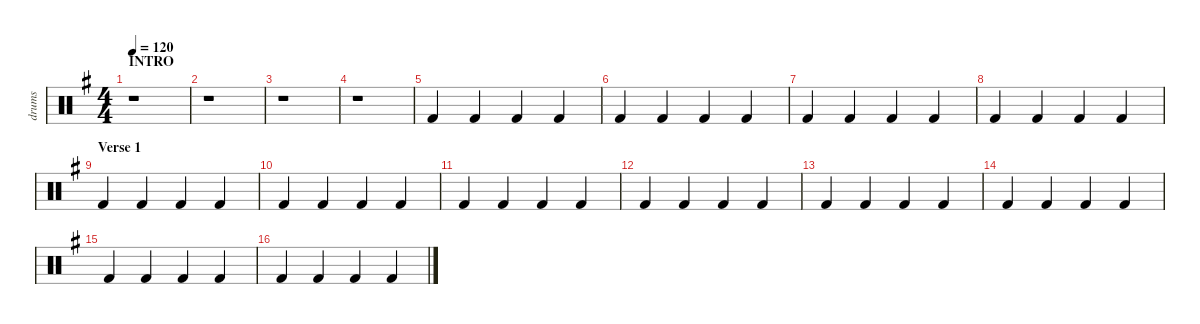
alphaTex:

\defaultSystemsLayout 4
\hideDynamics
\bracketExtendMode nobrackets
\otherSystemsTrackNameOrientation horizontal
\track ("drums" "drums") {instrument percussion}
\staff {score}
\articulation defaults
\ts (4 4)
\section ("" "INTRO")
\tempo 120
\clef neutral
\scale
1.17024
\ks eminor
r.1{dy mf beam Down} |
\scale
0.943253 r.1{beam Down} |
\scale
0.943253 r.1{beam Down} |
\scale
0.943253 r.1{beam Down} |
\scale
1.07945 "Kick (hit) 2"{acc forcenatural}.4{beam Up} "Kick (hit) 2"{acc forcenatural}.4{beam Up} "Kick (hit) 2"{acc forcenatural}.4{beam Up} "Kick (hit) 2"{acc forcenatural}.4{beam Up} |
\scale
0.973518 "Kick (hit) 2"{acc forcenatural}.4{beam Up} "Kick (hit) 2"{acc forcenatural}.4{beam Up} "Kick (hit) 2"{acc forcenatural}.4{beam Up} "Kick (hit) 2"{acc forcenatural}.4{beam Up} |
\scale
0.973518 "Kick (hit) 2"{acc forcenatural}.4{beam Up} "Kick (hit) 2"{acc forcenatural}.4{beam Up} "Kick (hit) 2"{acc forcenatural}.4{beam Up} "Kick (hit) 2"{acc forcenatural}.4{beam Up} |
\scale
0.973518 "Kick (hit) 2"{acc forcenatural}.4{beam Up} "Kick (hit) 2"{acc forcenatural}.4{beam Up} "Kick (hit) 2"{acc forcenatural}.4{beam Up} "Kick (hit) 2"{acc forcenatural}.4{beam Up} |
\section ("" "Verse 1")
\scale
1.07945 "Kick (hit) 2"{acc forcenatural}.4{beam Up} "Kick (hit) 2"{acc forcenatural}.4{beam Up} "Kick (hit) 2"{acc forcenatural}.4{beam Up} "Kick (hit) 2"{acc forcenatural}.4{beam Up} |
\scale
0.973518 "Kick (hit) 2"{acc forcenatural}.4{beam Up} "Kick (hit) 2"{acc forcenatural}.4{beam Up} "Kick (hit) 2"{acc forcenatural}.4{beam Up} "Kick (hit) 2"{acc forcenatural}.4{beam Up} |
\scale
0.973518 "Kick (hit) 2"{acc forcenatural}.4{beam Up} "Kick (hit) 2"{acc forcenatural}.4{beam Up} "Kick (hit) 2"{acc forcenatural}.4{beam Up} "Kick (hit) 2"{acc forcenatural}.4{beam Up} |
\scale
0.973518 "Kick (hit) 2"{acc forcenatural}.4{beam Up} "Kick (hit) 2"{acc forcenatural}.4{beam Up} "Kick (hit) 2"{acc forcenatural}.4{beam Up} "Kick (hit) 2"{acc forcenatural}.4{beam Up} |
\scale
1.07945 "Kick (hit) 2"{acc forcenatural}.4{beam Up} "Kick (hit) 2"{acc forcenatural}.4{beam Up} "Kick (hit) 2"{acc forcenatural}.4{beam Up} "Kick (hit) 2"{acc forcenatural}.4{beam Up} |
\scale
0.973518 "Kick (hit) 2"{acc forcenatural}.4{beam Up} "Kick (hit) 2"{acc forcenatural}.4{beam Up} "Kick (hit) 2"{acc forcenatural}.4{beam Up} "Kick (hit) 2"{acc forcenatural}.4{beam Up} |
\scale
0.973518 "Kick (hit) 2"{acc forcenatural}.4{beam Up} "Kick (hit) 2"{acc forcenatural}.4{beam Up} "Kick (hit) 2"{acc forcenatural}.4{beam Up} "Kick (hit) 2"{acc forcenatural}.4{beam Up} |
\scale
0.973518 "Kick (hit) 2"{acc forcenatural}.4{beam Up} "Kick (hit) 2"{acc forcenatural}.4{beam Up} "Kick (hit) 2"{acc forcenatural}.4{beam Up} "Kick (hit) 2"{acc forcenatural}.4{beam Up}
